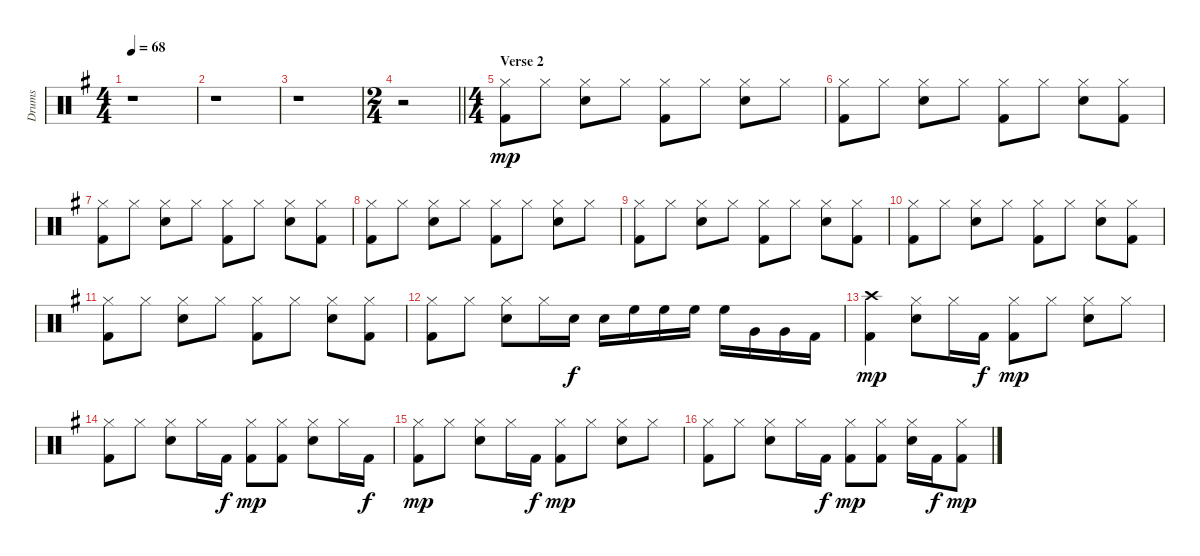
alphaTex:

\track ("Drums" "Drums") {instrument percussion}
\staff {score}
\articulation defaults
\ts (4 4)
\tempo 68
\clef neutral
\ks g
r.1{dy mp} |
r.1 |
r.1 |
\ts (2 4)
\barLineRight lightlight
r.2 |
\ts (4 4)
\section ("" "Verse 2")
("Hi-Hat (closed)" "Kick (hit) 2").8 "Hi-Hat (closed)".8 ("Hi-Hat (closed)" "Snare (hit) 2").8 "Hi-Hat (closed)".8 ("Hi-Hat (closed)" "Kick (hit) 2").8 "Hi-Hat (closed)".8 ("Hi-Hat (closed)" "Snare (hit) 2").8 "Hi-Hat (closed)".8 |
("Hi-Hat (closed)" "Kick (hit) 2").8 "Hi-Hat (closed)".8 ("Hi-Hat (closed)" "Snare (hit) 2").8 "Hi-Hat (closed)".8 ("Hi-Hat (closed)" "Kick (hit) 2").8 "Hi-Hat (closed)".8 ("Hi-Hat (closed)" "Snare (hit) 2").8 ("Hi-Hat (closed)" "Kick (hit) 2").8 |
("Hi-Hat (closed)" "Kick (hit) 2").8 "Hi-Hat (closed)".8 ("Hi-Hat (closed)" "Snare (hit) 2").8 "Hi-Hat (closed)".8 ("Hi-Hat (closed)" "Kick (hit) 2").8 "Hi-Hat (closed)".8 ("Hi-Hat (closed)" "Snare (hit) 2").8 ("Hi-Hat (closed)" "Kick (hit) 2").8 |
("Hi-Hat (closed)" "Kick (hit) 2").8 "Hi-Hat (closed)".8 ("Hi-Hat (closed)" "Snare (hit) 2").8 "Hi-Hat (closed)".8 ("Hi-Hat (closed)" "Kick (hit) 2").8 "Hi-Hat (closed)".8 ("Hi-Hat (closed)" "Snare (hit) 2").8 "Hi-Hat (closed)".8 |
("Hi-Hat (closed)" "Kick (hit) 2").8 "Hi-Hat (closed)".8 ("Hi-Hat (closed)" "Snare (hit) 2").8 "Hi-Hat (closed)".8 ("Hi-Hat (closed)" "Kick (hit) 2").8 "Hi-Hat (closed)".8 ("Hi-Hat (closed)" "Snare (hit) 2").8 ("Hi-Hat (closed)" "Kick (hit) 2").8 |
("Hi-Hat (closed)" "Kick (hit) 2").8 "Hi-Hat (closed)".8 ("Hi-Hat (closed)" "Snare (hit) 2").8 "Hi-Hat (closed)".8 ("Hi-Hat (closed)" "Kick (hit) 2").8 "Hi-Hat (closed)".8 ("Hi-Hat (closed)" "Snare (hit) 2").8 ("Hi-Hat (closed)" "Kick (hit) 2").8 |
("Hi-Hat (closed)" "Kick (hit) 2").8 "Hi-Hat (closed)".8 ("Hi-Hat (closed)" "Snare (hit) 2").8 "Hi-Hat (closed)".8 ("Hi-Hat (closed)" "Kick (hit) 2").8 "Hi-Hat (closed)".8 ("Hi-Hat (closed)" "Snare (hit) 2").8 ("Hi-Hat (closed)" "Kick (hit) 2").8 |
("Hi-Hat (closed)" "Kick (hit) 2").8 "Hi-Hat (closed)".8 ("Hi-Hat (closed)" "Snare (hit) 2").8 "Hi-Hat (closed)".16 "Snare (hit) 2".16{dy f} "Snare (hit) 2".16 "High Floor Tom (hit)".16 "High Floor Tom (hit)".16 "High Floor Tom (hit)".16 "High Floor Tom (hit)".16 "Very Low Tom (hit)".16 "Very Low Tom (hit)".16 "Kick (hit) 2".16 |
("Crash high (hit)" "Kick (hit) 2").4{dy mp} ("Hi-Hat (closed)" "Snare (hit) 2").8 "Hi-Hat (closed)".16 "Kick (hit) 2".16{dy f} ("Hi-Hat (closed)" "Kick (hit) 2").8{dy mp} "Hi-Hat (closed)".8 ("Hi-Hat (closed)" "Snare (hit) 2").8 "Hi-Hat (closed)".8 |
("Hi-Hat (closed)" "Kick (hit) 2").8 "Hi-Hat (closed)".8 ("Hi-Hat (closed)" "Snare (hit) 2").8 "Hi-Hat (closed)".16 "Kick (hit) 2".16{dy f} ("Hi-Hat (closed)" "Kick (hit) 2").8{dy mp} ("Hi-Hat (closed)" "Kick (hit) 2").8 ("Hi-Hat (closed)" "Snare (hit) 2").8 "Hi-Hat (closed)".16 "Kick (hit) 2".16{dy f} |
("Hi-Hat (closed)" "Kick (hit) 2").8{dy mp} "Hi-Hat (closed)".8 ("Hi-Hat (closed)" "Snare (hit) 2").8 "Hi-Hat (closed)".16 "Kick (hit) 2".16{dy f} ("Hi-Hat (closed)" "Kick (hit) 2").8{dy mp} "Hi-Hat (closed)".8 ("Hi-Hat (closed)" "Snare (hit) 2").8 "Hi-Hat (closed)".8 |
("Hi-Hat (closed)" "Kick (hit) 2").8 "Hi-Hat (closed)".8 ("Hi-Hat (closed)" "Snare (hit) 2").8 "Hi-Hat (closed)".16 "Kick (hit) 2".16{dy f} ("Hi-Hat (closed)" "Kick (hit) 2").8{dy mp} ("Hi-Hat (closed)" "Kick (hit) 2").8 ("Hi-Hat (closed)" "Snare (hit) 2").16 "Kick (hit) 2".16{dy f} ("Hi-Hat (closed)" "Kick (hit) 2").8{dy mp}
